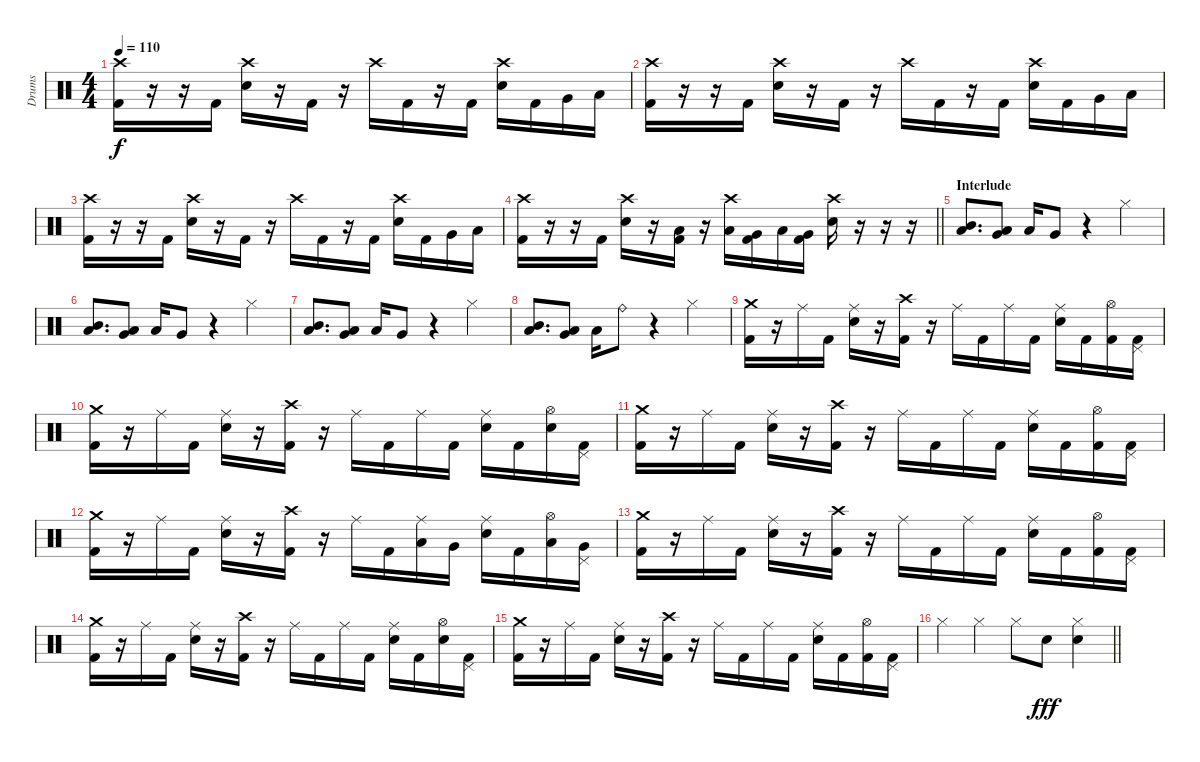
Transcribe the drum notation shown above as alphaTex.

\track ("Drums" "Drums") {instrument percussion}
\staff {score}
\articulation defaults
\ts (4 4)
\tempo 110
\clef neutral
\ks c
("Crash high (hit)" "Kick (hit) 2").16{dy f} r.16 r.16 "Kick (hit) 2".16 ("Crash high (hit)" "Snare (hit) 2").16 r.16 "Kick (hit) 2".16 r.16 "Crash high (hit)".16 "Kick (hit) 2".16 r.16 "Kick (hit) 2".16 ("Crash high (hit)" "Snare (hit) 2").16 "Kick (hit) 2".16 "Very Low Tom (hit)".16 "Low Tom (hit)".16 |
("Crash high (hit)" "Kick (hit) 2").16 r.16 r.16 "Kick (hit) 2".16 ("Crash high (hit)" "Snare (hit) 2").16 r.16 "Kick (hit) 2".16 r.16 "Crash high (hit)".16 "Kick (hit) 2".16 r.16 "Kick (hit) 2".16 ("Crash high (hit)" "Snare (hit) 2").16 "Kick (hit) 2".16 "Very Low Tom (hit)".16 "Low Tom (hit)".16 |
("Crash high (hit)" "Kick (hit) 2").16 r.16 r.16 "Kick (hit) 2".16 ("Crash high (hit)" "Snare (hit) 2").16 r.16 "Kick (hit) 2".16 r.16 "Crash high (hit)".16 "Kick (hit) 2".16 r.16 "Kick (hit) 2".16 ("Crash high (hit)" "Snare (hit) 2").16 "Kick (hit) 2".16 "Very Low Tom (hit)".16 "Low Tom (hit)".16 |
\barLineRight lightlight
("Crash high (hit)" "Kick (hit) 2").16 r.16 r.16 "Kick (hit) 2".16 ("Crash high (hit)" "Snare (hit) 2").16 r.16 ("Low Tom (hit)" "Kick (hit) 2").16 r.16 ("Crash high (hit)" "Low Tom (hit)").16 ("Very Low Tom (hit)" "Kick (hit) 2").16 "Low Tom (hit)".16 ("Very Low Tom (hit)" "Kick (hit) 2").16 ("Crash high (hit)" "Snare (hit) 2").16 r.16 r.16 r.16 |
\section ("" "Interlude")
("Mid Tom (hit)" "Low Tom (hit)").8{d} ("Low Tom (hit)" "Very Low Tom (hit)").8 "Low Tom (hit)".16 "Very Low Tom (hit)".8 r.4 "Hi-Hat (closed)".4 |
("Mid Tom (hit)" "Low Tom (hit)").8{d} ("Low Tom (hit)" "Very Low Tom (hit)").8 "Low Tom (hit)".16 "Very Low Tom (hit)".8 r.4 "Hi-Hat (closed)".4 |
("Mid Tom (hit)" "Low Tom (hit)").8{d} ("Low Tom (hit)" "Very Low Tom (hit)").8 "Low Tom (hit)".16 "Very Low Tom (hit)".8 r.4 "Hi-Hat (closed)".4 |
("Mid Tom (hit)" "Low Tom (hit)").8{d} ("Low Tom (hit)" "Very Low Tom (hit)").8 "Low Tom (hit)".16 "Ride (bell)".8 r.4 "Hi-Hat (closed)".4 |
("Crash medium (hit)" "Kick (hit) 2").16 r.16 "Ride (middle)".16 "Kick (hit) 2".16 ("Ride (middle)" "Snare (hit) 2").16 r.16 ("Crash high (hit)" "Kick (hit) 2").16 r.16 "Ride (middle)".16 "Kick (hit) 2".16 "Ride (middle)".16 "Kick (hit) 2".16 ("Ride (middle)" "Snare (hit) 2").16 "Kick (hit) 2".16 ("Hi-Hat (open)" "Kick (hit) 2").16 ("Pedal Hi-Hat (hit)" "Kick (hit) 2").16 |
("Crash medium (hit)" "Kick (hit) 2").16 r.16 "Ride (middle)".16 "Kick (hit) 2".16 ("Ride (middle)" "Snare (hit) 2").16 r.16 ("Crash high (hit)" "Kick (hit) 2").16 r.16 "Ride (middle)".16 "Kick (hit) 2".16 "Ride (middle)".16 "Kick (hit) 2".16 ("Ride (middle)" "Snare (hit) 2").16 "Kick (hit) 2".16 ("Hi-Hat (open)" "Snare (hit) 2").16 ("Pedal Hi-Hat (hit)" "Kick (hit) 2").16 |
("Crash medium (hit)" "Kick (hit) 2").16 r.16 "Ride (middle)".16 "Kick (hit) 2".16 ("Ride (middle)" "Snare (hit) 2").16 r.16 ("Crash high (hit)" "Kick (hit) 2").16 r.16 "Ride (middle)".16 "Kick (hit) 2".16 "Ride (middle)".16 "Kick (hit) 2".16 ("Ride (middle)" "Snare (hit) 2").16 "Kick (hit) 2".16 ("Hi-Hat (open)" "Kick (hit) 2").16 ("Pedal Hi-Hat (hit)" "Kick (hit) 2").16 |
("Crash medium (hit)" "Kick (hit) 2").16 r.16 "Ride (middle)".16 "Kick (hit) 2".16 ("Ride (middle)" "Snare (hit) 2").16 r.16 ("Crash high (hit)" "Kick (hit) 2").16 r.16 "Ride (middle)".16 "Kick (hit) 2".16 ("Ride (middle)" "Low Tom (hit)").16 "Very Low Tom (hit)".16 ("Ride (middle)" "Snare (hit) 2").16 "Kick (hit) 2".16 ("Hi-Hat (open)" "Low Tom (hit)").16 ("Pedal Hi-Hat (hit)" "Very Low Tom (hit)").16 |
("Crash medium (hit)" "Kick (hit) 2").16 r.16 "Ride (middle)".16 "Kick (hit) 2".16 ("Ride (middle)" "Snare (hit) 2").16 r.16 ("Crash high (hit)" "Kick (hit) 2").16 r.16 "Ride (middle)".16 "Kick (hit) 2".16 "Ride (middle)".16 "Kick (hit) 2".16 ("Ride (middle)" "Snare (hit) 2").16 "Kick (hit) 2".16 ("Hi-Hat (open)" "Kick (hit) 2").16 ("Pedal Hi-Hat (hit)" "Kick (hit) 2").16 |
("Crash medium (hit)" "Kick (hit) 2").16 r.16 "Ride (middle)".16 "Kick (hit) 2".16 ("Ride (middle)" "Snare (hit) 2").16 r.16 ("Crash high (hit)" "Kick (hit) 2").16 r.16 "Ride (middle)".16 "Kick (hit) 2".16 "Ride (middle)".16 "Kick (hit) 2".16 ("Ride (middle)" "Snare (hit) 2").16 "Kick (hit) 2".16 ("Hi-Hat (open)" "Snare (hit) 2").16 ("Pedal Hi-Hat (hit)" "Kick (hit) 2").16 |
("Crash medium (hit)" "Kick (hit) 2").16 r.16 "Ride (middle)".16 "Kick (hit) 2".16 ("Ride (middle)" "Snare (hit) 2").16 r.16 ("Crash high (hit)" "Kick (hit) 2").16 r.16 "Ride (middle)".16 "Kick (hit) 2".16 "Ride (middle)".16 "Kick (hit) 2".16 ("Ride (middle)" "Snare (hit) 2").16 "Kick (hit) 2".16 ("Hi-Hat (open)" "Kick (hit) 2").16 ("Pedal Hi-Hat (hit)" "Kick (hit) 2").16 |
\barLineRight lightlight "Hi-Hat (closed)".4 "Hi-Hat (closed)".4 "Hi-Hat (closed)".8 "Snare (hit) 2".8{dy fff}
("Hi-Hat (closed)" "Snare (hit) 2").4
